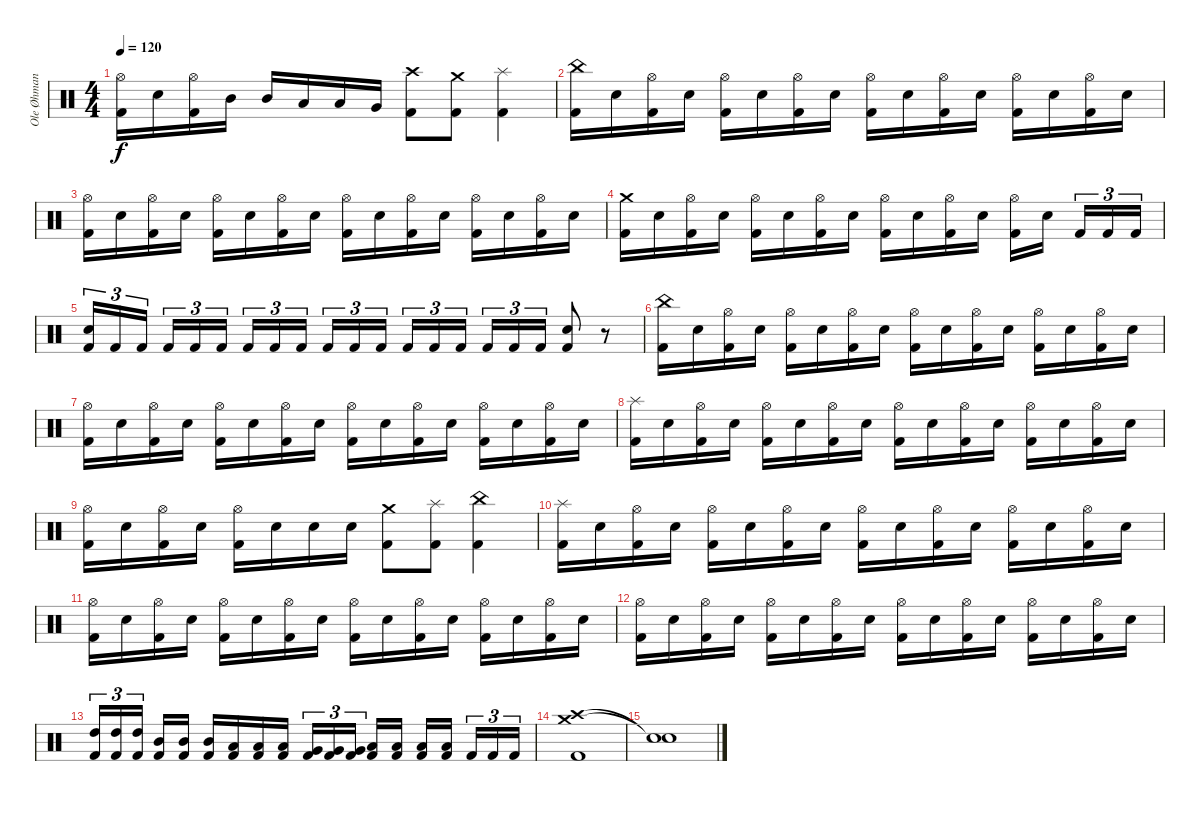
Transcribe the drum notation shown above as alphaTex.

\track ("Ole Øhman (Trommur)" "Ole Øhman ") {instrument percussion}
\staff {score}
\articulation defaults
\ts (4 4)
\tempo 120
\clef neutral
\ks c
("Hi-Hat (open)" "Kick (hit) 2").16{dy f} "Electric Snare (hit)".16 ("Hi-Hat (open)" "Kick (hit) 2").16 "Mid Tom (hit)".16 "Mid Tom (hit)".16 "Low Tom (hit)".16 "Low Tom (hit)".16 "Very Low Tom (hit)".16 ("Crash high (hit)" "Kick (hit) 2").8 ("Crash medium (hit)" "Kick (hit) 2").8 ("Splash (hit)" "Kick (hit) 2").4 |
("China (hit)" "Kick (hit) 2").16 "Electric Snare (hit)".16 ("Hi-Hat (open)" "Kick (hit) 2").16 "Electric Snare (hit)".16 ("Hi-Hat (open)" "Kick (hit) 2").16 "Electric Snare (hit)".16 ("Hi-Hat (open)" "Kick (hit) 2").16 "Electric Snare (hit)".16 ("Hi-Hat (open)" "Kick (hit) 2").16 "Electric Snare (hit)".16 ("Hi-Hat (open)" "Kick (hit) 2").16 "Electric Snare (hit)".16 ("Hi-Hat (open)" "Kick (hit) 2").16 "Electric Snare (hit)".16 ("Hi-Hat (open)" "Kick (hit) 2").16 "Electric Snare (hit)".16 |
("Hi-Hat (open)" "Kick (hit) 2").16 "Electric Snare (hit)".16 ("Hi-Hat (open)" "Kick (hit) 2").16 "Electric Snare (hit)".16 ("Hi-Hat (open)" "Kick (hit) 2").16 "Electric Snare (hit)".16 ("Hi-Hat (open)" "Kick (hit) 2").16 "Electric Snare (hit)".16 ("Hi-Hat (open)" "Kick (hit) 2").16 "Electric Snare (hit)".16 ("Hi-Hat (open)" "Kick (hit) 2").16 "Electric Snare (hit)".16 ("Hi-Hat (open)" "Kick (hit) 2").16 "Electric Snare (hit)".16 ("Hi-Hat (open)" "Kick (hit) 2").16 "Electric Snare (hit)".16 |
("Crash medium (hit)" "Kick (hit) 2").16 "Electric Snare (hit)".16 ("Hi-Hat (open)" "Kick (hit) 2").16 "Electric Snare (hit)".16 ("Hi-Hat (open)" "Kick (hit) 2").16 "Electric Snare (hit)".16 ("Hi-Hat (open)" "Kick (hit) 2").16 "Electric Snare (hit)".16 ("Hi-Hat (open)" "Kick (hit) 2").16 "Electric Snare (hit)".16 ("Hi-Hat (open)" "Kick (hit) 2").16 "Electric Snare (hit)".16 ("Hi-Hat (open)" "Kick (hit) 2").16 "Electric Snare (hit)".16 "Kick (hit) 2".16{tu (3 2)} "Kick (hit) 2".16{tu (3 2)} "Kick (hit) 2".16{tu (3 2)} |
("Electric Snare (hit)" "Kick (hit) 2").16{tu (3 2)} "Kick (hit) 2".16{tu (3 2)} "Kick (hit) 2".16{tu (3 2)} "Kick (hit) 2".16{tu (3 2)} "Kick (hit) 2".16{tu (3 2)} "Kick (hit) 2".16{tu (3 2)} "Kick (hit) 2".16{tu (3 2)} "Kick (hit) 2".16{tu (3 2)} "Kick (hit) 2".16{tu (3 2)} "Kick (hit) 2".16{tu (3 2)} "Kick (hit) 2".16{tu (3 2)} "Kick (hit) 2".16{tu (3 2)} "Kick (hit) 2".16{tu (3 2)} "Kick (hit) 2".16{tu (3 2)} "Kick (hit) 2".16{tu (3 2)} "Kick (hit) 2".16{tu (3 2)} "Kick (hit) 2".16{tu (3 2)} "Kick (hit) 2".16{tu (3 2)} ("Electric Snare (hit)" "Kick (hit) 2").8 r.8 |
("China (hit)" "Kick (hit) 2").16 "Electric Snare (hit)".16 ("Hi-Hat (open)" "Kick (hit) 2").16 "Electric Snare (hit)".16 ("Hi-Hat (open)" "Kick (hit) 2").16 "Electric Snare (hit)".16 ("Hi-Hat (open)" "Kick (hit) 2").16 "Electric Snare (hit)".16 ("Hi-Hat (open)" "Kick (hit) 2").16 "Electric Snare (hit)".16 ("Hi-Hat (open)" "Kick (hit) 2").16 "Electric Snare (hit)".16 ("Hi-Hat (open)" "Kick (hit) 2").16 "Electric Snare (hit)".16 ("Hi-Hat (open)" "Kick (hit) 2").16 "Electric Snare (hit)".16 |
("Hi-Hat (open)" "Kick (hit) 2").16 "Electric Snare (hit)".16 ("Hi-Hat (open)" "Kick (hit) 2").16 "Electric Snare (hit)".16 ("Hi-Hat (open)" "Kick (hit) 2").16 "Electric Snare (hit)".16 ("Hi-Hat (open)" "Kick (hit) 2").16 "Electric Snare (hit)".16 ("Hi-Hat (open)" "Kick (hit) 2").16 "Electric Snare (hit)".16 ("Hi-Hat (open)" "Kick (hit) 2").16 "Electric Snare (hit)".16 ("Hi-Hat (open)" "Kick (hit) 2").16 "Electric Snare (hit)".16 ("Hi-Hat (open)" "Kick (hit) 2").16 "Electric Snare (hit)".16 |
("Splash (hit)" "Kick (hit) 2").16 "Electric Snare (hit)".16 ("Hi-Hat (open)" "Kick (hit) 2").16 "Electric Snare (hit)".16 ("Hi-Hat (open)" "Kick (hit) 2").16 "Electric Snare (hit)".16 ("Hi-Hat (open)" "Kick (hit) 2").16 "Electric Snare (hit)".16 ("Hi-Hat (open)" "Kick (hit) 2").16 "Electric Snare (hit)".16 ("Hi-Hat (open)" "Kick (hit) 2").16 "Electric Snare (hit)".16 ("Hi-Hat (open)" "Kick (hit) 2").16 "Electric Snare (hit)".16 ("Hi-Hat (open)" "Kick (hit) 2").16 "Electric Snare (hit)".16 |
("Hi-Hat (open)" "Kick (hit) 2").16 "Electric Snare (hit)".16 ("Hi-Hat (open)" "Kick (hit) 2").16 "Electric Snare (hit)".16 ("Hi-Hat (open)" "Kick (hit) 2").16 "Electric Snare (hit)".16 "Electric Snare (hit)".16 "Electric Snare (hit)".16 ("Crash medium (hit)" "Kick (hit) 2").8 ("Splash (hit)" "Kick (hit) 2").8 ("China (hit)" "Kick (hit) 2").4 |
("Splash (hit)" "Kick (hit) 2").16 "Electric Snare (hit)".16 ("Hi-Hat (open)" "Kick (hit) 2").16 "Electric Snare (hit)".16 ("Hi-Hat (open)" "Kick (hit) 2").16 "Electric Snare (hit)".16 ("Hi-Hat (open)" "Kick (hit) 2").16 "Electric Snare (hit)".16 ("Hi-Hat (open)" "Kick (hit) 2").16 "Electric Snare (hit)".16 ("Hi-Hat (open)" "Kick (hit) 2").16 "Electric Snare (hit)".16 ("Hi-Hat (open)" "Kick (hit) 2").16 "Electric Snare (hit)".16 ("Hi-Hat (open)" "Kick (hit) 2").16 "Electric Snare (hit)".16 |
("Hi-Hat (open)" "Kick (hit) 2").16 "Electric Snare (hit)".16 ("Hi-Hat (open)" "Kick (hit) 2").16 "Electric Snare (hit)".16 ("Hi-Hat (open)" "Kick (hit) 2").16 "Electric Snare (hit)".16 ("Hi-Hat (open)" "Kick (hit) 2").16 "Electric Snare (hit)".16 ("Hi-Hat (open)" "Kick (hit) 2").16 "Electric Snare (hit)".16 ("Hi-Hat (open)" "Kick (hit) 2").16 "Electric Snare (hit)".16 ("Hi-Hat (open)" "Kick (hit) 2").16 "Electric Snare (hit)".16 ("Hi-Hat (open)" "Kick (hit) 2").16 "Electric Snare (hit)".16 |
("Hi-Hat (open)" "Kick (hit) 2").16 "Electric Snare (hit)".16 ("Hi-Hat (open)" "Kick (hit) 2").16 "Electric Snare (hit)".16 ("Hi-Hat (open)" "Kick (hit) 2").16 "Electric Snare (hit)".16 ("Hi-Hat (open)" "Kick (hit) 2").16 "Electric Snare (hit)".16 ("Hi-Hat (open)" "Kick (hit) 2").16 "Electric Snare (hit)".16 ("Hi-Hat (open)" "Kick (hit) 2").16 "Electric Snare (hit)".16 ("Hi-Hat (open)" "Kick (hit) 2").16 "Electric Snare (hit)".16 ("Hi-Hat (open)" "Kick (hit) 2").16 "Electric Snare (hit)".16 |
("High Tom (hit)" "Kick (hit) 2").16{tu (3 2)} ("High Tom (hit)" "Kick (hit) 2").16{tu (3 2)} ("High Tom (hit)" "Kick (hit) 2").16{tu (3 2)} ("Mid Tom (hit)" "Kick (hit) 2").16 ("Mid Tom (hit)" "Kick (hit) 2").16 ("Mid Tom (hit)" "Kick (hit) 2").16 ("Low Tom (hit)" "Kick (hit) 2").16 ("Low Tom (hit)" "Kick (hit) 2").16 ("Low Tom (hit)" "Kick (hit) 2").16 ("Very Low Tom (hit)" "Kick (hit) 2").16{tu (3 2)} ("Very Low Tom (hit)" "Kick (hit) 2").16{tu (3 2)} ("Very Low Tom (hit)" "Kick (hit) 2").16{tu (3 2)} ("Low Floor Tom (hit)" "Kick (hit) 2").16 ("Low Floor Tom (hit)" "Kick (hit) 2").16 ("Low Floor Tom (hit)" "Kick (hit) 2").16 ("Low Floor Tom (hit)" "Kick (hit) 2").16 "Kick (hit) 2".16{tu (3 2)} "Kick (hit) 2".16{tu (3 2)} "Kick (hit) 2".16{tu (3 2)} |
("Crash medium (hit)" "Crash high (hit)" "Kick (hit) 2").1 |
("Snare (hit)"{t} "Snare (hit)"{t}).1
